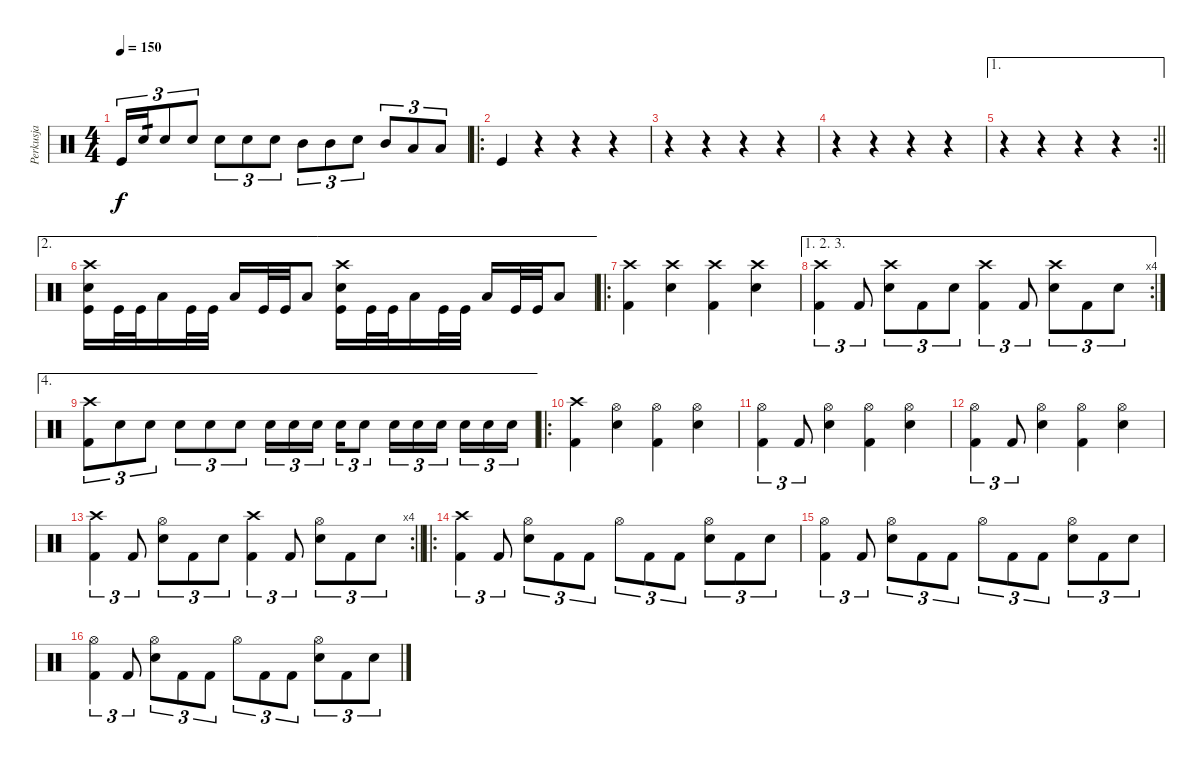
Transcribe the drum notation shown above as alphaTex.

\track ("Perkusja" "Perkusja") {instrument percussion}
\staff {score}
\articulation defaults
\ts (4 4)
\tempo 150
\clef neutral
\ks c "Kick (hit)".16{tu (3 2) dy f} "Snare (hit) 2".16{tu (3 2) tp 1} "Snare (hit) 2".8{tu (3 2)} "Snare (hit) 2".8{tu (3 2)} "Snare (hit) 2".8{tu (3 2)} "Snare (hit) 2".8{tu (3 2)} "Snare (hit) 2".8{tu (3 2)} "Mid Tom (hit)".8{tu (3 2)} "Mid Tom (hit)".8{tu (3 2)} "Snare (hit) 2".8{tu (3 2)} "Mid Tom (hit)".8{tu (3 2)} "Low Tom (hit)".8{tu (3 2)} "Low Floor Tom (hit)".8{tu (3 2)}
|
\ro "Kick (hit)".4
r.4 r.4 r.4 |
r.4 r.4 r.4 r.4 |
r.4 r.4 r.4 r.4 |
\ae 1
\rc 2
\barLineRight lightlight
r.4 r.4 r.4 r.4 |
\ae 2
("Kick (hit)" "Crash high (hit)" "Snare (hit) 2").16 "Kick (hit)".32 "Kick (hit)".32 "Low Floor Tom (hit)".16 "Kick (hit)".32 "Kick (hit)".32 "Low Floor Tom (hit)".16 "Kick (hit)".32 "Kick (hit)".32 "Low Floor Tom (hit)".8 ("Kick (hit)" "Crash high (hit)" "Snare (hit) 2").16 "Kick (hit)".32 "Kick (hit)".32 "Low Floor Tom (hit)".16 "Kick (hit)".32 "Kick (hit)".32 "Low Floor Tom (hit)".16 "Kick (hit)".32 "Kick (hit)".32 "Low Floor Tom (hit)".8 |
\ro
("Kick (hit) 2" "Crash high (hit)").4 ("Snare (hit) 2" "Crash high (hit)").4 ("Kick (hit) 2" "Crash high (hit)").4 ("Snare (hit) 2" "Crash high (hit)").4 |
\ae (1 2 3)
\rc 4
("Kick (hit) 2" "Crash high (hit)").4{tu (3 2)} "Kick (hit) 2".8{tu (3 2)} ("Snare (hit) 2" "Crash high (hit)").8{tu (3 2)} "Kick (hit) 2".8{tu (3 2)} "Snare (hit) 2".8{tu (3 2)} ("Kick (hit) 2" "Crash high (hit)").4{tu (3 2)} "Kick (hit) 2".8{tu (3 2)} ("Snare (hit) 2" "Crash high (hit)").8{tu (3 2)} "Kick (hit) 2".8{tu (3 2)} "Snare (hit) 2".8{tu (3 2)} |
\ae 4
("Kick (hit) 2" "Crash high (hit)").8{tu (3 2)} "Snare (hit) 2".8{tu (3 2)} "Snare (hit) 2".8{tu (3 2)} "Snare (hit) 2".8{tu (3 2)} "Snare (hit) 2".8{tu (3 2)} "Snare (hit) 2".8{tu (3 2)} "Snare (hit) 2".16{tu (3 2)} "Snare (hit) 2".16{tu (3 2)} "Snare (hit) 2".16{tu (3 2) beam splitsecondary} "Snare (hit) 2".16{tu (3 2)} "Snare (hit) 2".8{tu (3 2)} "Snare (hit) 2".16{tu (3 2)} "Snare (hit) 2".16{tu (3 2)} "Snare (hit) 2".16{tu (3 2) beam splitsecondary} "Snare (hit) 2".16{tu (3 2)} "Snare (hit) 2".16{tu (3 2)} "Snare (hit) 2".16{tu (3 2)} |
\ro
("Kick (hit) 2" "Crash high (hit)").4 ("Snare (hit) 2" "Hi-Hat (open)").4 ("Kick (hit) 2" "Hi-Hat (open)").4 ("Snare (hit) 2" "Hi-Hat (open)").4 |
("Kick (hit) 2" "Hi-Hat (open)").4{tu (3 2)} "Kick (hit) 2".8{tu (3 2)} ("Snare (hit) 2" "Hi-Hat (open)").4 ("Kick (hit) 2" "Hi-Hat (open)").4 ("Snare (hit) 2" "Hi-Hat (open)").4 |
("Kick (hit) 2" "Hi-Hat (open)").4{tu (3 2)} "Kick (hit) 2".8{tu (3 2)} ("Snare (hit) 2" "Hi-Hat (open)").4 ("Kick (hit) 2" "Hi-Hat (open)").4 ("Snare (hit) 2" "Hi-Hat (open)").4 |
\rc 4
\barLineRight lightlight
("Kick (hit) 2" "Crash high (hit)").4{tu (3 2)} "Kick (hit) 2".8{tu (3 2)} ("Snare (hit) 2" "Hi-Hat (open)").8{tu (3 2)} "Kick (hit) 2".8{tu (3 2)} "Snare (hit) 2".8{tu (3 2)} ("Kick (hit) 2" "Crash high (hit)").4{tu (3 2)} "Kick (hit) 2".8{tu (3 2)} ("Snare (hit) 2" "Hi-Hat (open)").8{tu (3 2)} "Kick (hit) 2".8{tu (3 2)} "Snare (hit) 2".8{tu (3 2)} |
\ro
("Crash high (hit)" "Kick (hit) 2").4{tu (3 2)} "Kick (hit) 2".8{tu (3 2)} ("Snare (hit) 2" "Hi-Hat (open)").8{tu (3 2)} "Kick (hit) 2".8{tu (3 2)} "Kick (hit) 2".8{tu (3 2)} "Hi-Hat (open)".8{tu (3 2)} "Kick (hit) 2".8{tu (3 2)} "Kick (hit) 2".8{tu (3 2)} ("Snare (hit) 2" "Hi-Hat (open)").8{tu (3 2)} "Kick (hit) 2".8{tu (3 2)} "Snare (hit) 2".8{tu (3 2)} |
("Hi-Hat (open)" "Kick (hit) 2").4{tu (3 2)} "Kick (hit) 2".8{tu (3 2)} ("Snare (hit) 2" "Hi-Hat (open)").8{tu (3 2)} "Kick (hit) 2".8{tu (3 2)} "Kick (hit) 2".8{tu (3 2)} "Hi-Hat (open)".8{tu (3 2)} "Kick (hit) 2".8{tu (3 2)} "Kick (hit) 2".8{tu (3 2)} ("Snare (hit) 2" "Hi-Hat (open)").8{tu (3 2)} "Kick (hit) 2".8{tu (3 2)} "Snare (hit) 2".8{tu (3 2)} |
("Hi-Hat (open)" "Kick (hit) 2").4{tu (3 2)} "Kick (hit) 2".8{tu (3 2)} ("Snare (hit) 2" "Hi-Hat (open)").8{tu (3 2)} "Kick (hit) 2".8{tu (3 2)} "Kick (hit) 2".8{tu (3 2)} "Hi-Hat (open)".8{tu (3 2)} "Kick (hit) 2".8{tu (3 2)} "Kick (hit) 2".8{tu (3 2)} ("Snare (hit) 2" "Hi-Hat (open)").8{tu (3 2)} "Kick (hit) 2".8{tu (3 2)} "Snare (hit) 2".8{tu (3 2)}
